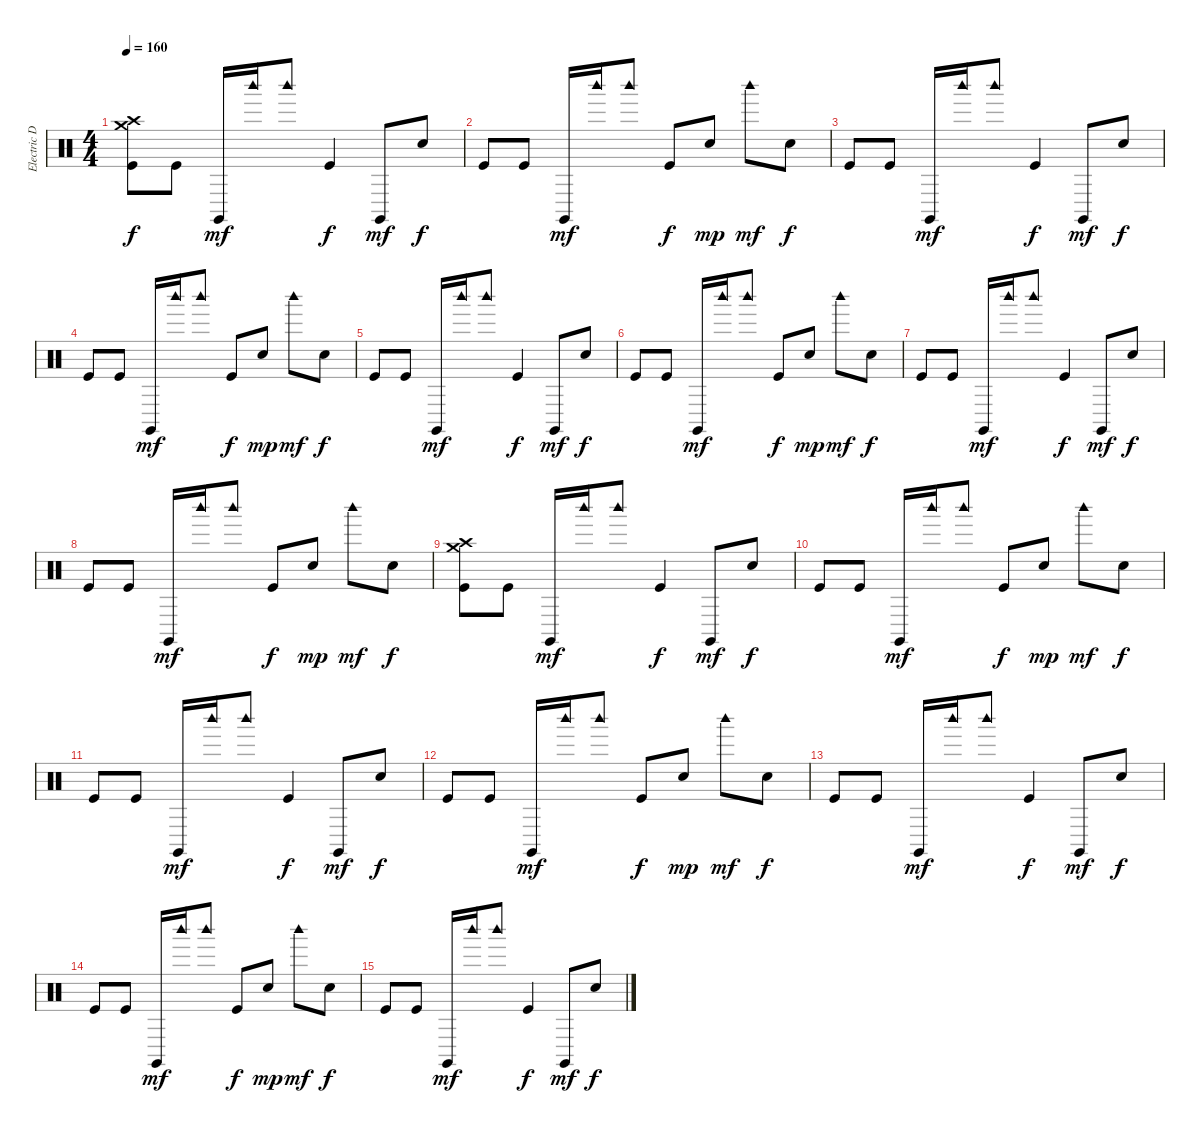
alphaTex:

\track ("Electric Drums" "Electric D") {instrument percussion}
\staff {score}
\articulation defaults
\ts (4 4)
\tempo 160
\clef neutral
\ks c
("Crash medium (hit)" "Crash high (hit)" "Kick (hit)").8{dy f volume 10} "Kick (hit)".8 "Claves (hit)".16{dy mf} "Woodblock high (hit)".16 "Woodblock high (hit)".8 "Kick (hit)".4{dy f} "Claves (hit)".8{dy mf} "Electric Snare (hit)".8{dy f} |
"Kick (hit)".8 "Kick (hit)".8 "Claves (hit)".16{dy mf} "Woodblock high (hit)".16 "Woodblock high (hit)".8 "Kick (hit)".8{dy f} "Electric Snare (hit)".8{dy mp} "Woodblock high (hit)".8{dy mf} "Electric Snare (hit)".8{dy f} |
"Kick (hit)".8 "Kick (hit)".8 "Claves (hit)".16{dy mf} "Woodblock high (hit)".16 "Woodblock high (hit)".8 "Kick (hit)".4{dy f} "Claves (hit)".8{dy mf} "Electric Snare (hit)".8{dy f} |
"Kick (hit)".8 "Kick (hit)".8 "Claves (hit)".16{dy mf} "Woodblock high (hit)".16 "Woodblock high (hit)".8 "Kick (hit)".8{dy f} "Electric Snare (hit)".8{dy mp} "Woodblock high (hit)".8{dy mf} "Electric Snare (hit)".8{dy f} |
"Kick (hit)".8 "Kick (hit)".8 "Claves (hit)".16{dy mf} "Woodblock high (hit)".16 "Woodblock high (hit)".8 "Kick (hit)".4{dy f} "Claves (hit)".8{dy mf} "Electric Snare (hit)".8{dy f} |
"Kick (hit)".8 "Kick (hit)".8 "Claves (hit)".16{dy mf} "Woodblock high (hit)".16 "Woodblock high (hit)".8 "Kick (hit)".8{dy f} "Electric Snare (hit)".8{dy mp} "Woodblock high (hit)".8{dy mf} "Electric Snare (hit)".8{dy f} |
"Kick (hit)".8 "Kick (hit)".8 "Claves (hit)".16{dy mf} "Woodblock high (hit)".16 "Woodblock high (hit)".8 "Kick (hit)".4{dy f} "Claves (hit)".8{dy mf} "Electric Snare (hit)".8{dy f} |
"Kick (hit)".8 "Kick (hit)".8 "Claves (hit)".16{dy mf} "Woodblock high (hit)".16 "Woodblock high (hit)".8 "Kick (hit)".8{dy f} "Electric Snare (hit)".8{dy mp} "Woodblock high (hit)".8{dy mf} "Electric Snare (hit)".8{dy f} |
("Crash medium (hit)" "Crash high (hit)" "Kick (hit)").8 "Kick (hit)".8 "Claves (hit)".16{dy mf} "Woodblock high (hit)".16 "Woodblock high (hit)".8 "Kick (hit)".4{dy f} "Claves (hit)".8{dy mf} "Electric Snare (hit)".8{dy f} |
"Kick (hit)".8 "Kick (hit)".8 "Claves (hit)".16{dy mf} "Woodblock high (hit)".16 "Woodblock high (hit)".8 "Kick (hit)".8{dy f} "Electric Snare (hit)".8{dy mp} "Woodblock high (hit)".8{dy mf} "Electric Snare (hit)".8{dy f} |
"Kick (hit)".8 "Kick (hit)".8 "Claves (hit)".16{dy mf} "Woodblock high (hit)".16 "Woodblock high (hit)".8 "Kick (hit)".4{dy f} "Claves (hit)".8{dy mf} "Electric Snare (hit)".8{dy f} |
"Kick (hit)".8 "Kick (hit)".8 "Claves (hit)".16{dy mf} "Woodblock high (hit)".16 "Woodblock high (hit)".8 "Kick (hit)".8{dy f} "Electric Snare (hit)".8{dy mp} "Woodblock high (hit)".8{dy mf} "Electric Snare (hit)".8{dy f} |
"Kick (hit)".8 "Kick (hit)".8 "Claves (hit)".16{dy mf} "Woodblock high (hit)".16 "Woodblock high (hit)".8 "Kick (hit)".4{dy f} "Claves (hit)".8{dy mf} "Electric Snare (hit)".8{dy f} |
"Kick (hit)".8 "Kick (hit)".8 "Claves (hit)".16{dy mf} "Woodblock high (hit)".16 "Woodblock high (hit)".8 "Kick (hit)".8{dy f} "Electric Snare (hit)".8{dy mp} "Woodblock high (hit)".8{dy mf} "Electric Snare (hit)".8{dy f} |
"Kick (hit)".8 "Kick (hit)".8 "Claves (hit)".16{dy mf} "Woodblock high (hit)".16 "Woodblock high (hit)".8 "Kick (hit)".4{dy f} "Claves (hit)".8{dy mf} "Electric Snare (hit)".8{dy f}
